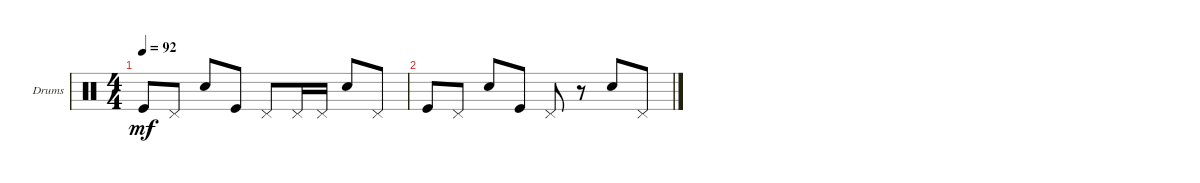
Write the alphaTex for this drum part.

\defaultSystemsLayout 4
\bracketExtendMode groupsimilarinstruments
\firstSystemTrackNameOrientation horizontal
\otherSystemsTrackNameOrientation horizontal
\track ("Drumkit" "Drums") {instrument percussion}
\staff {score}
\articulation defaults
\ts (4 4)
\tempo 92
\clef neutral
\ks c "Kick (hit)".8{dy mf} "Pedal Hi-Hat (hit)".8 "Snare (hit) 2".8 "Kick (hit)".8 "Pedal Hi-Hat (hit)".8 "Pedal Hi-Hat (hit)".16 "Pedal Hi-Hat (hit)".16 "Snare (hit) 2".8 "Pedal Hi-Hat (hit)".8
|
"Kick (hit)".8 "Pedal Hi-Hat (hit)".8 "Snare (hit) 2".8 "Kick (hit)".8 "Pedal Hi-Hat (hit)".8 r.8 "Snare (hit) 2".8 "Pedal Hi-Hat (hit)".8
